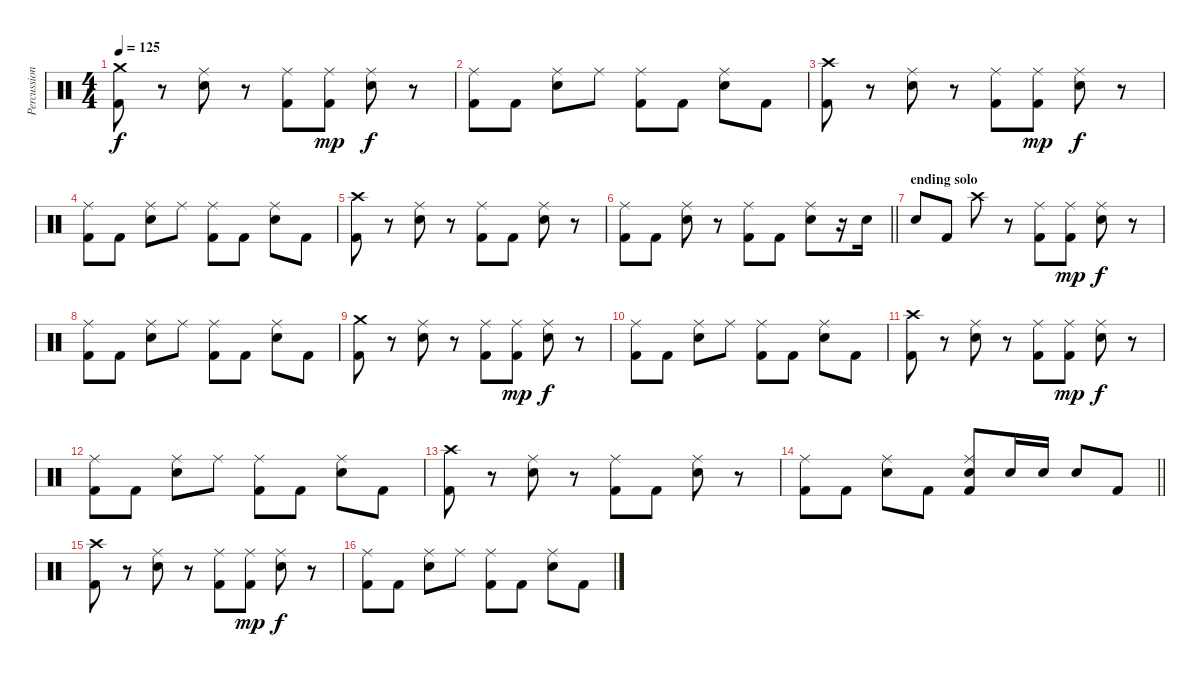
\track ("Percussion" "Percussion") {instrument percussion}
\staff {score}
\articulation defaults
\ts (4 4)
\tempo 125
\clef neutral
\ks c
("Crash medium (hit)" "Kick (hit) 2").8{dy f} r.8 ("Ride (middle)" "Snare (hit) 2").8 r.8 ("Ride (middle)" "Kick (hit) 2").8 ("Ride (middle)" "Kick (hit) 2").8{dy mp} ("Ride (middle)" "Snare (hit) 2").8{dy f} r.8 |
("Ride (middle)" "Kick (hit) 2").8 "Kick (hit) 2".8 ("Ride (middle)" "Snare (hit) 2").8 "Ride (middle)".8 ("Ride (middle)" "Kick (hit) 2").8 "Kick (hit) 2".8 ("Ride (middle)" "Snare (hit) 2").8 "Kick (hit) 2".8 |
("Crash high (hit)" "Kick (hit) 2").8 r.8 ("Ride (middle)" "Snare (hit) 2").8 r.8 ("Ride (middle)" "Kick (hit) 2").8 ("Ride (middle)" "Kick (hit) 2").8{dy mp} ("Ride (middle)" "Snare (hit) 2").8{dy f} r.8 |
("Ride (middle)" "Kick (hit) 2").8 "Kick (hit) 2".8 ("Ride (middle)" "Snare (hit) 2").8 "Ride (middle)".8 ("Ride (middle)" "Kick (hit) 2").8 "Kick (hit) 2".8 ("Ride (middle)" "Snare (hit) 2").8 "Kick (hit) 2".8 |
("Crash high (hit)" "Kick (hit) 2").8 r.8 ("Ride (middle)" "Snare (hit) 2").8 r.8 ("Ride (middle)" "Kick (hit) 2").8 "Kick (hit) 2".8 ("Ride (middle)" "Snare (hit) 2").8 r.8 |
\barLineRight lightlight
("Ride (middle)" "Kick (hit) 2").8 "Kick (hit) 2".8 ("Ride (middle)" "Snare (hit) 2").8 r.8 ("Ride (middle)" "Kick (hit) 2").8 "Kick (hit) 2".8 ("Ride (middle)" "Snare (hit) 2").8 r.16 "Snare (hit) 2".16 |
\section ("" "ending solo")
"Snare (hit) 2".8 "Kick (hit) 2".8 "Crash high (hit)".8 r.8 ("Ride (middle)" "Kick (hit) 2").8 ("Ride (middle)" "Kick (hit) 2").8{dy mp} ("Ride (middle)" "Snare (hit) 2").8{dy f} r.8 |
("Ride (middle)" "Kick (hit) 2").8 "Kick (hit) 2".8 ("Ride (middle)" "Snare (hit) 2").8 "Ride (middle)".8 ("Ride (middle)" "Kick (hit) 2").8 "Kick (hit) 2".8 ("Ride (middle)" "Snare (hit) 2").8 "Kick (hit) 2".8 |
("Crash medium (hit)" "Kick (hit) 2").8 r.8 ("Ride (middle)" "Snare (hit) 2").8 r.8 ("Ride (middle)" "Kick (hit) 2").8 ("Ride (middle)" "Kick (hit) 2").8{dy mp} ("Ride (middle)" "Snare (hit) 2").8{dy f} r.8 |
("Ride (middle)" "Kick (hit) 2").8 "Kick (hit) 2".8 ("Ride (middle)" "Snare (hit) 2").8 "Ride (middle)".8 ("Ride (middle)" "Kick (hit) 2").8 "Kick (hit) 2".8 ("Ride (middle)" "Snare (hit) 2").8 "Kick (hit) 2".8 |
("Crash high (hit)" "Kick (hit) 2").8 r.8 ("Ride (middle)" "Snare (hit) 2").8 r.8 ("Ride (middle)" "Kick (hit) 2").8 ("Ride (middle)" "Kick (hit) 2").8{dy mp} ("Ride (middle)" "Snare (hit) 2").8{dy f} r.8 |
("Ride (middle)" "Kick (hit) 2").8 "Kick (hit) 2".8 ("Ride (middle)" "Snare (hit) 2").8 "Ride (middle)".8 ("Ride (middle)" "Kick (hit) 2").8 "Kick (hit) 2".8 ("Ride (middle)" "Snare (hit) 2").8 "Kick (hit) 2".8 |
("Crash high (hit)" "Kick (hit) 2").8 r.8 ("Ride (middle)" "Snare (hit) 2").8 r.8 ("Ride (middle)" "Kick (hit) 2").8 "Kick (hit) 2".8 ("Ride (middle)" "Snare (hit) 2").8 r.8 |
\barLineRight lightlight
("Ride (middle)" "Kick (hit) 2").8 "Kick (hit) 2".8 ("Ride (middle)" "Snare (hit) 2").8 "Kick (hit) 2".8 ("Ride (middle)" "Snare (hit) 2" "Kick (hit) 2").8 "Snare (hit) 2".16 "Snare (hit) 2".16 "Snare (hit) 2".8 "Kick (hit) 2".8 |
("Crash high (hit)" "Kick (hit) 2").8 r.8 ("Ride (middle)" "Snare (hit) 2").8 r.8 ("Ride (middle)" "Kick (hit) 2").8 ("Ride (middle)" "Kick (hit) 2").8{dy mp} ("Ride (middle)" "Snare (hit) 2").8{dy f} r.8 |
("Ride (middle)" "Kick (hit) 2").8 "Kick (hit) 2".8 ("Ride (middle)" "Snare (hit) 2").8 "Ride (middle)".8 ("Ride (middle)" "Kick (hit) 2").8 "Kick (hit) 2".8 ("Ride (middle)" "Snare (hit) 2").8 "Kick (hit) 2".8
